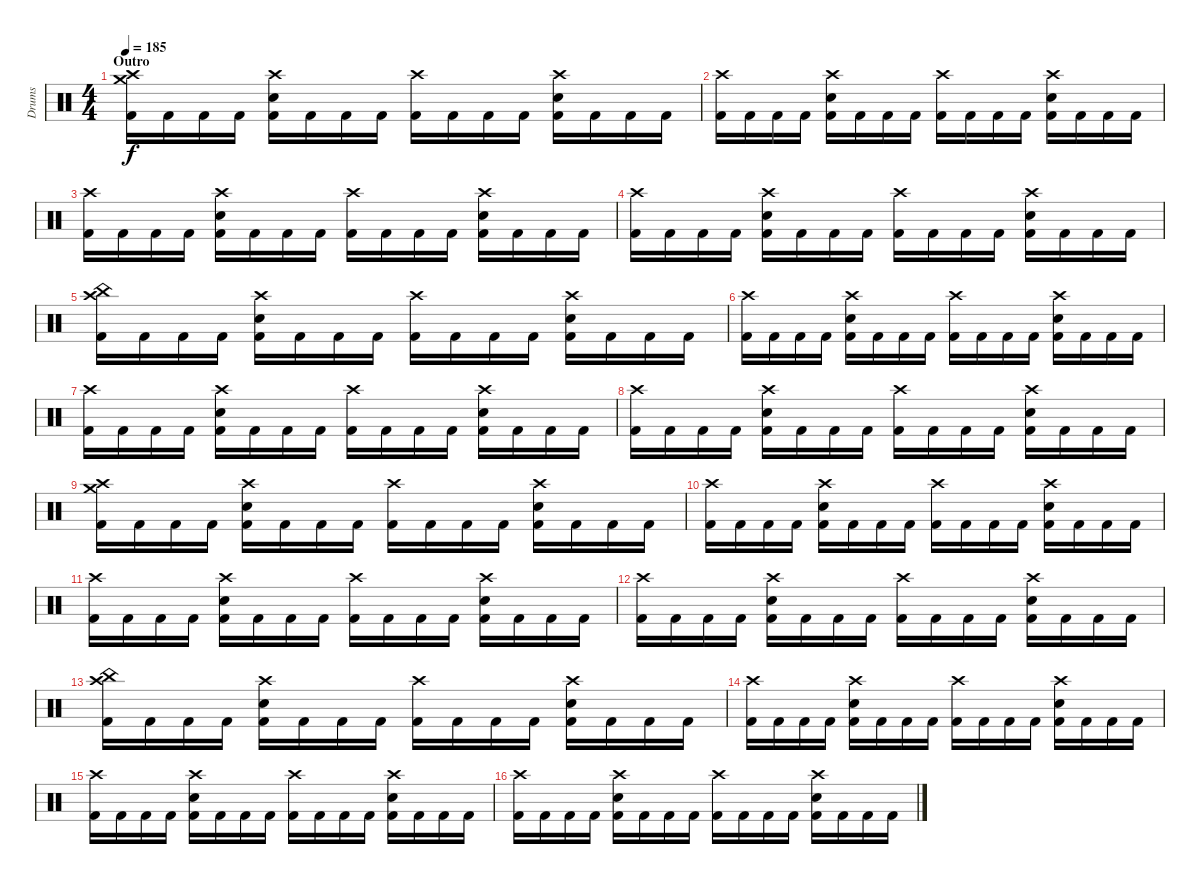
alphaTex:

\track ("Drums" "Drums") {instrument percussion}
\staff {score}
\articulation defaults
\ts (4 4)
\section ("" "Outro")
\tempo 185
\clef neutral
\ks c
("Crash high (hit)" "Crash medium (hit)" "Kick (hit) 2").16{dy f} "Kick (hit) 2".16 "Kick (hit) 2".16 "Kick (hit) 2".16 ("Crash high (hit)" "Electric Snare (hit)" "Kick (hit) 2").16 "Kick (hit) 2".16 "Kick (hit) 2".16 "Kick (hit) 2".16 ("Crash high (hit)" "Kick (hit) 2").16 "Kick (hit) 2".16 "Kick (hit) 2".16 "Kick (hit) 2".16 ("Crash high (hit)" "Electric Snare (hit)" "Kick (hit) 2").16 "Kick (hit) 2".16 "Kick (hit) 2".16 "Kick (hit) 2".16 |
("Crash high (hit)" "Kick (hit) 2").16 "Kick (hit) 2".16 "Kick (hit) 2".16 "Kick (hit) 2".16 ("Crash high (hit)" "Electric Snare (hit)" "Kick (hit) 2").16 "Kick (hit) 2".16 "Kick (hit) 2".16 "Kick (hit) 2".16 ("Crash high (hit)" "Kick (hit) 2").16 "Kick (hit) 2".16 "Kick (hit) 2".16 "Kick (hit) 2".16 ("Crash high (hit)" "Electric Snare (hit)" "Kick (hit) 2").16 "Kick (hit) 2".16 "Kick (hit) 2".16 "Kick (hit) 2".16 |
("Crash high (hit)" "Kick (hit) 2").16 "Kick (hit) 2".16 "Kick (hit) 2".16 "Kick (hit) 2".16 ("Crash high (hit)" "Electric Snare (hit)" "Kick (hit) 2").16 "Kick (hit) 2".16 "Kick (hit) 2".16 "Kick (hit) 2".16 ("Crash high (hit)" "Kick (hit) 2").16 "Kick (hit) 2".16 "Kick (hit) 2".16 "Kick (hit) 2".16 ("Crash high (hit)" "Electric Snare (hit)" "Kick (hit) 2").16 "Kick (hit) 2".16 "Kick (hit) 2".16 "Kick (hit) 2".16 |
("Crash high (hit)" "Kick (hit) 2").16 "Kick (hit) 2".16 "Kick (hit) 2".16 "Kick (hit) 2".16 ("Crash high (hit)" "Electric Snare (hit)" "Kick (hit) 2").16 "Kick (hit) 2".16 "Kick (hit) 2".16 "Kick (hit) 2".16 ("Crash high (hit)" "Kick (hit) 2").16 "Kick (hit) 2".16 "Kick (hit) 2".16 "Kick (hit) 2".16 ("Crash high (hit)" "Electric Snare (hit)" "Kick (hit) 2").16 "Kick (hit) 2".16 "Kick (hit) 2".16 "Kick (hit) 2".16 |
("Crash high (hit)" "China (hit)" "Kick (hit) 2").16 "Kick (hit) 2".16 "Kick (hit) 2".16 "Kick (hit) 2".16 ("Crash high (hit)" "Electric Snare (hit)" "Kick (hit) 2").16 "Kick (hit) 2".16 "Kick (hit) 2".16 "Kick (hit) 2".16 ("Crash high (hit)" "Kick (hit) 2").16 "Kick (hit) 2".16 "Kick (hit) 2".16 "Kick (hit) 2".16 ("Crash high (hit)" "Electric Snare (hit)" "Kick (hit) 2").16 "Kick (hit) 2".16 "Kick (hit) 2".16 "Kick (hit) 2".16 |
("Crash high (hit)" "Kick (hit) 2").16 "Kick (hit) 2".16 "Kick (hit) 2".16 "Kick (hit) 2".16 ("Crash high (hit)" "Electric Snare (hit)" "Kick (hit) 2").16 "Kick (hit) 2".16 "Kick (hit) 2".16 "Kick (hit) 2".16 ("Crash high (hit)" "Kick (hit) 2").16 "Kick (hit) 2".16 "Kick (hit) 2".16 "Kick (hit) 2".16 ("Crash high (hit)" "Electric Snare (hit)" "Kick (hit) 2").16 "Kick (hit) 2".16 "Kick (hit) 2".16 "Kick (hit) 2".16 |
("Crash high (hit)" "Kick (hit) 2").16 "Kick (hit) 2".16 "Kick (hit) 2".16 "Kick (hit) 2".16 ("Crash high (hit)" "Electric Snare (hit)" "Kick (hit) 2").16 "Kick (hit) 2".16 "Kick (hit) 2".16 "Kick (hit) 2".16 ("Crash high (hit)" "Kick (hit) 2").16 "Kick (hit) 2".16 "Kick (hit) 2".16 "Kick (hit) 2".16 ("Crash high (hit)" "Electric Snare (hit)" "Kick (hit) 2").16 "Kick (hit) 2".16 "Kick (hit) 2".16 "Kick (hit) 2".16 |
("Crash high (hit)" "Kick (hit) 2").16 "Kick (hit) 2".16 "Kick (hit) 2".16 "Kick (hit) 2".16 ("Crash high (hit)" "Electric Snare (hit)" "Kick (hit) 2").16 "Kick (hit) 2".16 "Kick (hit) 2".16 "Kick (hit) 2".16 ("Crash high (hit)" "Kick (hit) 2").16 "Kick (hit) 2".16 "Kick (hit) 2".16 "Kick (hit) 2".16 ("Crash high (hit)" "Electric Snare (hit)" "Kick (hit) 2").16 "Kick (hit) 2".16 "Kick (hit) 2".16 "Kick (hit) 2".16 |
("Crash high (hit)" "Crash medium (hit)" "Kick (hit) 2").16 "Kick (hit) 2".16 "Kick (hit) 2".16 "Kick (hit) 2".16 ("Crash high (hit)" "Electric Snare (hit)" "Kick (hit) 2").16 "Kick (hit) 2".16 "Kick (hit) 2".16 "Kick (hit) 2".16 ("Crash high (hit)" "Kick (hit) 2").16 "Kick (hit) 2".16 "Kick (hit) 2".16 "Kick (hit) 2".16 ("Crash high (hit)" "Electric Snare (hit)" "Kick (hit) 2").16 "Kick (hit) 2".16 "Kick (hit) 2".16 "Kick (hit) 2".16 |
("Crash high (hit)" "Kick (hit) 2").16 "Kick (hit) 2".16 "Kick (hit) 2".16 "Kick (hit) 2".16 ("Crash high (hit)" "Electric Snare (hit)" "Kick (hit) 2").16 "Kick (hit) 2".16 "Kick (hit) 2".16 "Kick (hit) 2".16 ("Crash high (hit)" "Kick (hit) 2").16 "Kick (hit) 2".16 "Kick (hit) 2".16 "Kick (hit) 2".16 ("Crash high (hit)" "Electric Snare (hit)" "Kick (hit) 2").16 "Kick (hit) 2".16 "Kick (hit) 2".16 "Kick (hit) 2".16 |
("Crash high (hit)" "Kick (hit) 2").16 "Kick (hit) 2".16 "Kick (hit) 2".16 "Kick (hit) 2".16 ("Crash high (hit)" "Electric Snare (hit)" "Kick (hit) 2").16 "Kick (hit) 2".16 "Kick (hit) 2".16 "Kick (hit) 2".16 ("Crash high (hit)" "Kick (hit) 2").16 "Kick (hit) 2".16 "Kick (hit) 2".16 "Kick (hit) 2".16 ("Crash high (hit)" "Electric Snare (hit)" "Kick (hit) 2").16 "Kick (hit) 2".16 "Kick (hit) 2".16 "Kick (hit) 2".16 |
("Crash high (hit)" "Kick (hit) 2").16 "Kick (hit) 2".16 "Kick (hit) 2".16 "Kick (hit) 2".16 ("Crash high (hit)" "Electric Snare (hit)" "Kick (hit) 2").16 "Kick (hit) 2".16 "Kick (hit) 2".16 "Kick (hit) 2".16 ("Crash high (hit)" "Kick (hit) 2").16 "Kick (hit) 2".16 "Kick (hit) 2".16 "Kick (hit) 2".16 ("Crash high (hit)" "Electric Snare (hit)" "Kick (hit) 2").16 "Kick (hit) 2".16 "Kick (hit) 2".16 "Kick (hit) 2".16 |
("Crash high (hit)" "China (hit)" "Kick (hit) 2").16 "Kick (hit) 2".16 "Kick (hit) 2".16 "Kick (hit) 2".16 ("Crash high (hit)" "Electric Snare (hit)" "Kick (hit) 2").16 "Kick (hit) 2".16 "Kick (hit) 2".16 "Kick (hit) 2".16 ("Crash high (hit)" "Kick (hit) 2").16 "Kick (hit) 2".16 "Kick (hit) 2".16 "Kick (hit) 2".16 ("Crash high (hit)" "Electric Snare (hit)" "Kick (hit) 2").16 "Kick (hit) 2".16 "Kick (hit) 2".16 "Kick (hit) 2".16 |
("Crash high (hit)" "Kick (hit) 2").16 "Kick (hit) 2".16 "Kick (hit) 2".16 "Kick (hit) 2".16 ("Crash high (hit)" "Electric Snare (hit)" "Kick (hit) 2").16 "Kick (hit) 2".16 "Kick (hit) 2".16 "Kick (hit) 2".16 ("Crash high (hit)" "Kick (hit) 2").16 "Kick (hit) 2".16 "Kick (hit) 2".16 "Kick (hit) 2".16 ("Crash high (hit)" "Electric Snare (hit)" "Kick (hit) 2").16 "Kick (hit) 2".16 "Kick (hit) 2".16 "Kick (hit) 2".16 |
("Crash high (hit)" "Kick (hit) 2").16 "Kick (hit) 2".16 "Kick (hit) 2".16 "Kick (hit) 2".16 ("Crash high (hit)" "Electric Snare (hit)" "Kick (hit) 2").16 "Kick (hit) 2".16 "Kick (hit) 2".16 "Kick (hit) 2".16 ("Crash high (hit)" "Kick (hit) 2").16 "Kick (hit) 2".16 "Kick (hit) 2".16 "Kick (hit) 2".16 ("Crash high (hit)" "Electric Snare (hit)" "Kick (hit) 2").16 "Kick (hit) 2".16 "Kick (hit) 2".16 "Kick (hit) 2".16 |
("Crash high (hit)" "Kick (hit) 2").16 "Kick (hit) 2".16 "Kick (hit) 2".16 "Kick (hit) 2".16 ("Crash high (hit)" "Electric Snare (hit)" "Kick (hit) 2").16 "Kick (hit) 2".16 "Kick (hit) 2".16 "Kick (hit) 2".16 ("Crash high (hit)" "Kick (hit) 2").16 "Kick (hit) 2".16 "Kick (hit) 2".16 "Kick (hit) 2".16 ("Crash high (hit)" "Electric Snare (hit)" "Kick (hit) 2").16 "Kick (hit) 2".16 "Kick (hit) 2".16 "Kick (hit) 2".16
